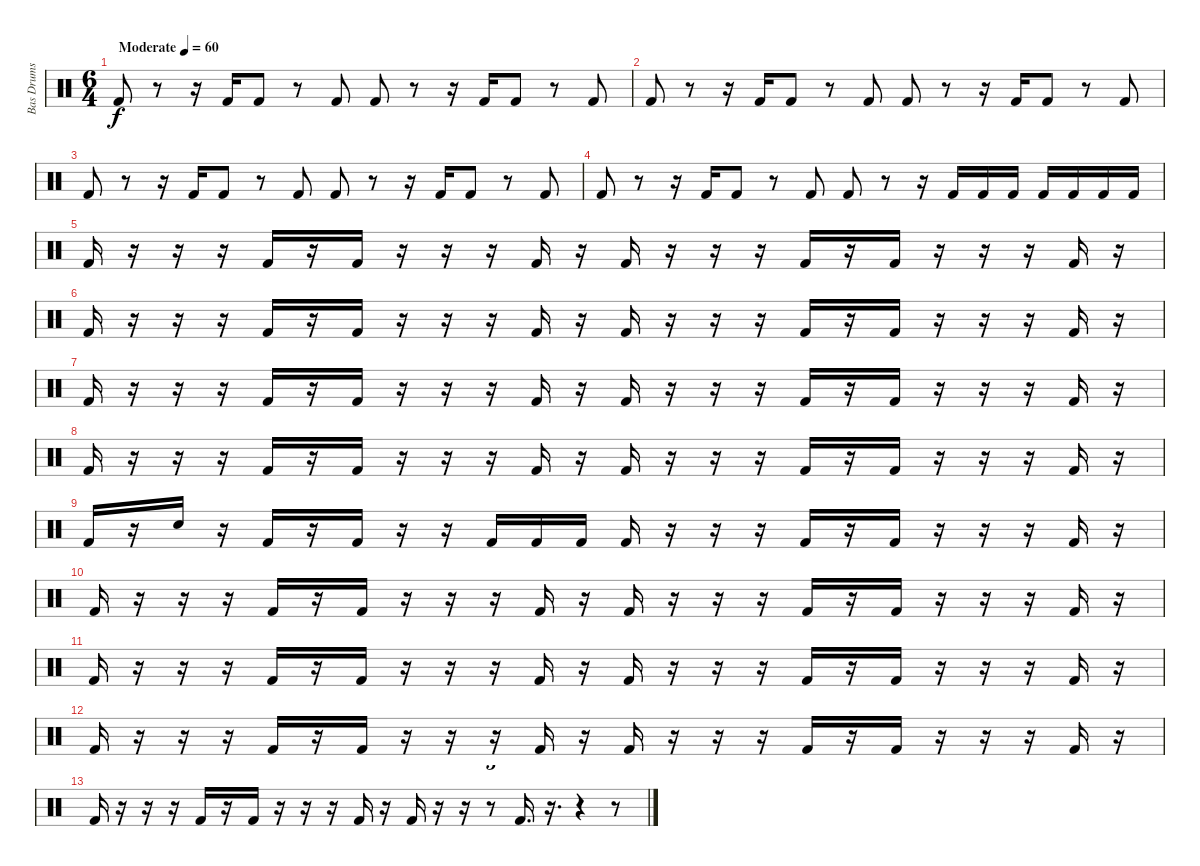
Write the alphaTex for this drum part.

\track ("Bas Drums" "Bas Drums") {instrument percussion}
\staff
\articulation defaults
\ts (6 4)
\tempo (60 "Moderate")
\clef neutral
\ks c "Kick (hit) 2".8{dy f}
r.8 r.16 "Kick (hit) 2".16 "Kick (hit) 2".8 r.8 "Kick (hit) 2".8 "Kick (hit) 2".8 r.8 r.16 "Kick (hit) 2".16 "Kick (hit) 2".8 r.8 "Kick (hit) 2".8 |
"Kick (hit) 2".8 r.8 r.16 "Kick (hit) 2".16 "Kick (hit) 2".8 r.8 "Kick (hit) 2".8 "Kick (hit) 2".8 r.8 r.16 "Kick (hit) 2".16 "Kick (hit) 2".8 r.8 "Kick (hit) 2".8 |
"Kick (hit) 2".8 r.8 r.16 "Kick (hit) 2".16 "Kick (hit) 2".8 r.8 "Kick (hit) 2".8 "Kick (hit) 2".8 r.8 r.16 "Kick (hit) 2".16 "Kick (hit) 2".8 r.8 "Kick (hit) 2".8 |
"Kick (hit) 2".8 r.8 r.16 "Kick (hit) 2".16 "Kick (hit) 2".8 r.8 "Kick (hit) 2".8 "Kick (hit) 2".8 r.8 r.16 "Kick (hit) 2".16 "Kick (hit) 2".16 "Kick (hit) 2".16 "Kick (hit) 2".16 "Kick (hit) 2".16 "Kick (hit) 2".16 "Kick (hit) 2".16 |
"Kick (hit) 2".16 r.16 r.16 r.16 "Kick (hit) 2".16 r.16 "Kick (hit) 2".16 r.16 r.16 r.16 "Kick (hit) 2".16 r.16 "Kick (hit) 2".16 r.16 r.16 r.16 "Kick (hit) 2".16 r.16 "Kick (hit) 2".16 r.16 r.16 r.16 "Kick (hit) 2".16 r.16 |
"Kick (hit) 2".16 r.16 r.16 r.16 "Kick (hit) 2".16 r.16 "Kick (hit) 2".16 r.16 r.16 r.16 "Kick (hit) 2".16 r.16 "Kick (hit) 2".16 r.16 r.16 r.16 "Kick (hit) 2".16 r.16 "Kick (hit) 2".16 r.16 r.16 r.16 "Kick (hit) 2".16 r.16 |
"Kick (hit) 2".16 r.16 r.16 r.16 "Kick (hit) 2".16 r.16 "Kick (hit) 2".16 r.16 r.16 r.16 "Kick (hit) 2".16 r.16 "Kick (hit) 2".16 r.16 r.16 r.16 "Kick (hit) 2".16 r.16 "Kick (hit) 2".16 r.16 r.16 r.16 "Kick (hit) 2".16 r.16 |
"Kick (hit) 2".16 r.16 r.16 r.16 "Kick (hit) 2".16 r.16 "Kick (hit) 2".16 r.16 r.16 r.16 "Kick (hit) 2".16 r.16 "Kick (hit) 2".16 r.16 r.16 r.16 "Kick (hit) 2".16 r.16 "Kick (hit) 2".16 r.16 r.16 r.16 "Kick (hit) 2".16 r.16 |
"Kick (hit) 2".16 r.16 "Snare (hit) 2".16 r.16 "Kick (hit) 2".16 r.16 "Kick (hit) 2".16 r.16 r.16 "Kick (hit) 2".16 "Kick (hit) 2".16 "Kick (hit) 2".16 "Kick (hit) 2".16 r.16 r.16 r.16 "Kick (hit) 2".16 r.16 "Kick (hit) 2".16 r.16 r.16 r.16 "Kick (hit) 2".16 r.16 |
"Kick (hit) 2".16 r.16 r.16 r.16 "Kick (hit) 2".16 r.16 "Kick (hit) 2".16 r.16 r.16 r.16 "Kick (hit) 2".16 r.16 "Kick (hit) 2".16 r.16 r.16 r.16 "Kick (hit) 2".16 r.16 "Kick (hit) 2".16 r.16 r.16 r.16 "Kick (hit) 2".16 r.16 |
"Kick (hit) 2".16 r.16 r.16 r.16 "Kick (hit) 2".16 r.16 "Kick (hit) 2".16 r.16 r.16 r.16 "Kick (hit) 2".16 r.16 "Kick (hit) 2".16 r.16 r.16 r.16 "Kick (hit) 2".16 r.16 "Kick (hit) 2".16 r.16 r.16 r.16 "Kick (hit) 2".16 r.16 |
"Kick (hit) 2".16 r.16 r.16 r.16 "Kick (hit) 2".16 r.16 "Kick (hit) 2".16 r.16 r.16 r.16 "Kick (hit) 2".16 r.16 "Kick (hit) 2".16 r.16 r.16 r.16 "Kick (hit) 2".16 r.16 "Kick (hit) 2".16 r.16 r.16 r.16 "Kick (hit) 2".16 r.16 |
"Kick (hit) 2".16 r.16 r.16 r.16 "Kick (hit) 2".16 r.16 "Kick (hit) 2".16 r.16 r.16 r.16 "Kick (hit) 2".16 r.16 "Kick (hit) 2".16 r.16 r.16 r.8{tu (3 2)} "Kick (hit) 2".16{d} r.16{d} r.4{tu (3 2)} r.8
